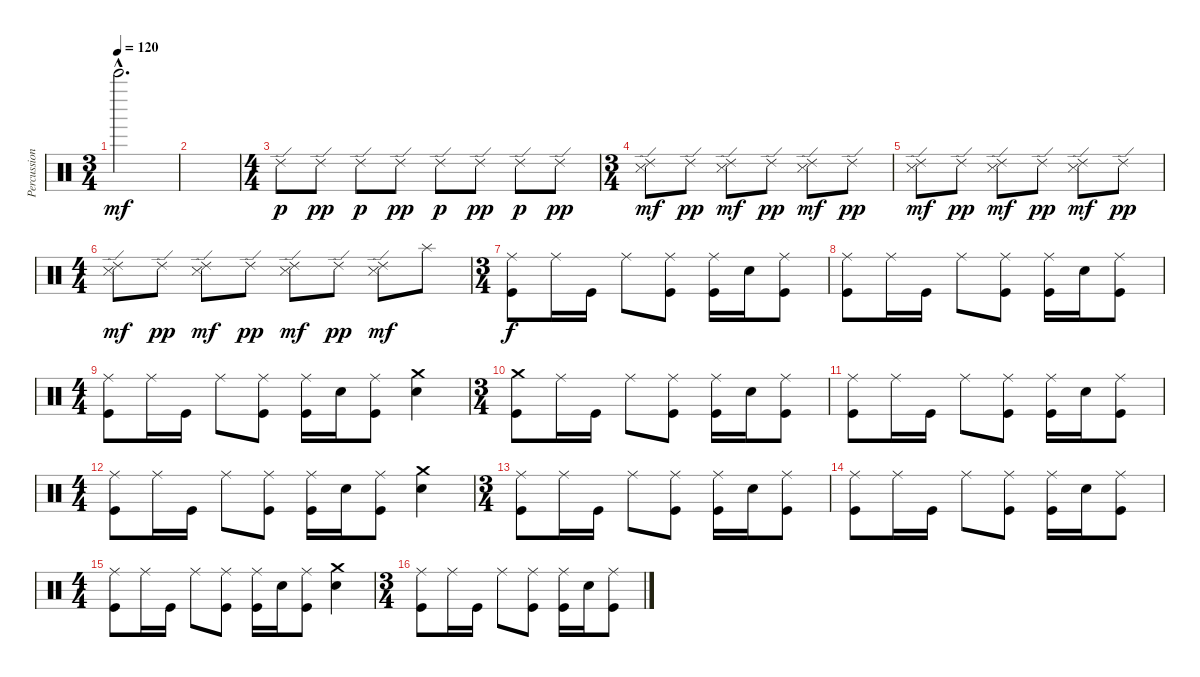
\track ("Percussion" "Percussion") {instrument percussion}
\staff {score}
\articulation defaults
\ts (3 4)
\tempo 120
\clef neutral
\ks c "Bell Tree (hit)"{hac}.2{d dy mf}
|
|
\ts (4 4)
"Ride (edge) 2".8{dy p} "Ride (edge) 2".8{dy pp} "Ride (edge) 2".8{dy p} "Ride (edge) 2".8{dy pp} "Ride (edge) 2".8{dy p} "Ride (edge) 2".8{dy pp} "Ride (edge) 2".8{dy p} "Ride (edge) 2".8{dy pp} |
\ts (3 4)
("Ride (edge) 2" "Snare (side stick) 3").8{dy mf} "Ride (edge) 2".8{dy pp} ("Ride (edge) 2" "Snare (side stick) 3").8{dy mf} "Ride (edge) 2".8{dy pp} ("Ride (edge) 2" "Snare (side stick) 3").8{dy mf} "Ride (edge) 2".8{dy pp} |
("Ride (edge) 2" "Snare (side stick) 3").8{dy mf} "Ride (edge) 2".8{dy pp} ("Ride (edge) 2" "Snare (side stick) 3").8{dy mf} "Ride (edge) 2".8{dy pp} ("Ride (edge) 2" "Snare (side stick) 3").8{dy mf} "Ride (edge) 2".8{dy pp} |
\ts (4 4)
("Ride (edge) 2" "Snare (side stick) 3").8{dy mf} "Ride (edge) 2".8{dy pp} ("Ride (edge) 2" "Snare (side stick) 3").8{dy mf} "Ride (edge) 2".8{dy pp} ("Ride (edge) 2" "Snare (side stick) 3").8{dy mf} "Ride (edge) 2".8{dy pp} ("Ride (edge) 2" "Snare (side stick) 3").8{dy mf} "Splash (hit)".8 |
\ts (3 4)
("Ride (middle)" "Kick (hit)").8{dy f} "Ride (middle)".16 "Kick (hit)".16 "Ride (middle)".8 ("Ride (middle)" "Kick (hit)").8 ("Ride (middle)" "Kick (hit)").16 "Snare (hit) 2".16 ("Ride (middle)" "Kick (hit)").8 |
("Ride (middle)" "Kick (hit)").8 "Ride (middle)".16 "Kick (hit)".16 "Ride (middle)".8 ("Ride (middle)" "Kick (hit)").8 ("Ride (middle)" "Kick (hit)").16 "Snare (hit) 2".16 ("Ride (middle)" "Kick (hit)").8 |
\ts (4 4)
("Ride (middle)" "Kick (hit)").8 "Ride (middle)".16 "Kick (hit)".16 "Ride (middle)".8 ("Ride (middle)" "Kick (hit)").8 ("Ride (middle)" "Kick (hit)").16 "Snare (hit) 2".16 ("Ride (middle)" "Kick (hit)").8 ("Crash medium (hit)" "Snare (hit) 2").4 |
\ts (3 4)
("Crash medium (hit)" "Kick (hit)").8 "Ride (middle)".16 "Kick (hit)".16 "Ride (middle)".8 ("Ride (middle)" "Kick (hit)").8 ("Ride (middle)" "Kick (hit)").16 "Snare (hit) 2".16 ("Ride (middle)" "Kick (hit)").8 |
("Ride (middle)" "Kick (hit)").8 "Ride (middle)".16 "Kick (hit)".16 "Ride (middle)".8 ("Ride (middle)" "Kick (hit)").8 ("Ride (middle)" "Kick (hit)").16 "Snare (hit) 2".16 ("Ride (middle)" "Kick (hit)").8 |
\ts (4 4)
("Ride (middle)" "Kick (hit)").8 "Ride (middle)".16 "Kick (hit)".16 "Ride (middle)".8 ("Ride (middle)" "Kick (hit)").8 ("Ride (middle)" "Kick (hit)").16 "Snare (hit) 2".16 ("Ride (middle)" "Kick (hit)").8 ("Crash medium (hit)" "Snare (hit) 2").4 |
\ts (3 4)
("Ride (middle)" "Kick (hit)").8 "Ride (middle)".16 "Kick (hit)".16 "Ride (middle)".8 ("Ride (middle)" "Kick (hit)").8 ("Ride (middle)" "Kick (hit)").16 "Snare (hit) 2".16 ("Ride (middle)" "Kick (hit)").8 |
("Ride (middle)" "Kick (hit)").8 "Ride (middle)".16 "Kick (hit)".16 "Ride (middle)".8 ("Ride (middle)" "Kick (hit)").8 ("Ride (middle)" "Kick (hit)").16 "Snare (hit) 2".16 ("Ride (middle)" "Kick (hit)").8 |
\ts (4 4)
("Ride (middle)" "Kick (hit)").8 "Ride (middle)".16 "Kick (hit)".16 "Ride (middle)".8 ("Ride (middle)" "Kick (hit)").8 ("Ride (middle)" "Kick (hit)").16 "Snare (hit) 2".16 ("Ride (middle)" "Kick (hit)").8 ("Crash medium (hit)" "Snare (hit) 2").4 |
\ts (3 4)
("Ride (middle)" "Kick (hit)").8 "Ride (middle)".16 "Kick (hit)".16 "Ride (middle)".8 ("Ride (middle)" "Kick (hit)").8 ("Ride (middle)" "Kick (hit)").16 "Snare (hit) 2".16 ("Ride (middle)" "Kick (hit)").8
